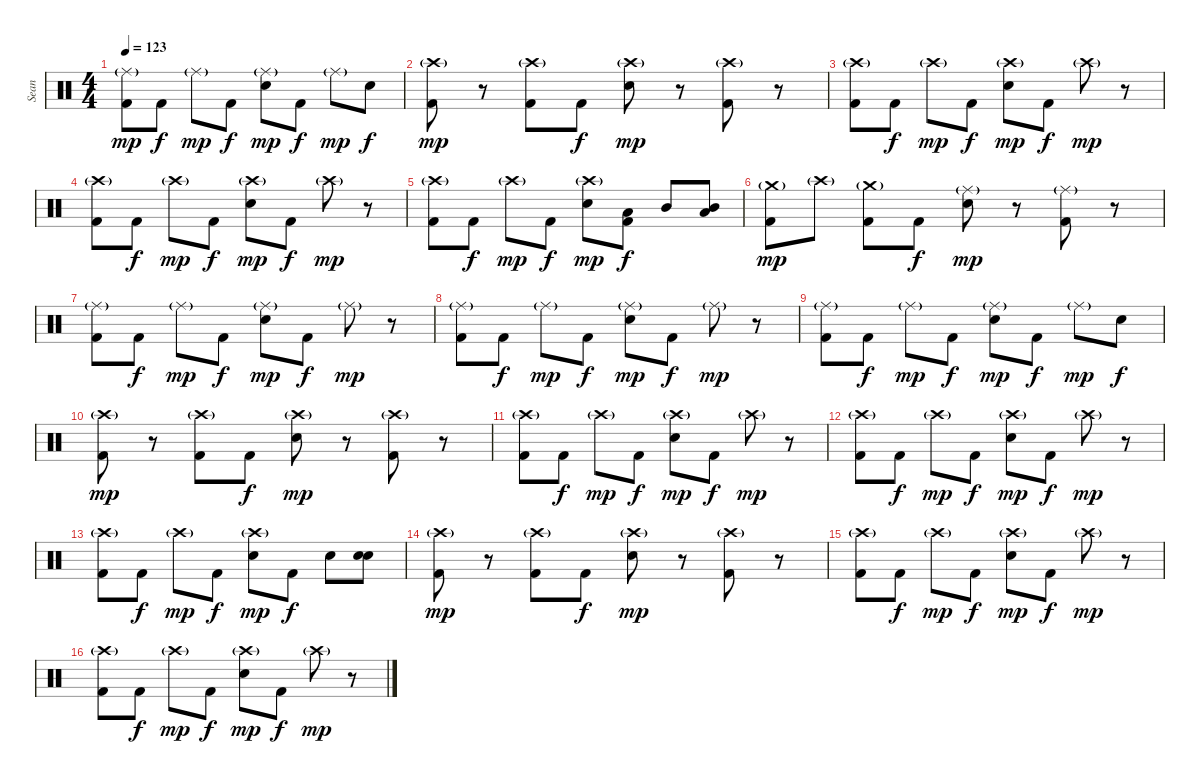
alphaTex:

\track ("Sean" "Sean") {instrument percussion}
\staff {score}
\articulation defaults
\ts (4 4)
\tempo 123
\clef neutral
\ks c
("Ride (middle)"{g} "Kick (hit) 2").8{dy mp} "Kick (hit) 2".8{dy f} "Ride (middle)"{g}.8{dy mp} "Kick (hit) 2".8{dy f} ("Ride (middle)"{g} "Electric Snare (hit)").8{dy mp} "Kick (hit) 2".8{dy f} "Ride (middle)"{g}.8{dy mp} "Electric Snare (hit)".8{dy f} |
("Crash high (hit)"{g} "Kick (hit) 2").8{dy mp} r.8 ("Crash high (hit)"{g} "Kick (hit) 2").8 "Kick (hit) 2".8{dy f} ("Crash high (hit)"{g} "Electric Snare (hit)").8{dy mp} r.8 ("Crash high (hit)"{g} "Kick (hit) 2").8 r.8 |
("Crash high (hit)"{g} "Kick (hit) 2").8 "Kick (hit) 2".8{dy f} "Crash high (hit)"{g}.8{dy mp} "Kick (hit) 2".8{dy f} ("Crash high (hit)"{g} "Electric Snare (hit)").8{dy mp} "Kick (hit) 2".8{dy f} "Crash high (hit)"{g}.8{dy mp} r.8 |
("Crash high (hit)"{g} "Kick (hit) 2").8 "Kick (hit) 2".8{dy f} "Crash high (hit)"{g}.8{dy mp} "Kick (hit) 2".8{dy f} ("Crash high (hit)"{g} "Electric Snare (hit)").8{dy mp} "Kick (hit) 2".8{dy f} "Crash high (hit)"{g}.8{dy mp} r.8 |
("Crash high (hit)"{g} "Kick (hit) 2").8 "Kick (hit) 2".8{dy f} "Crash high (hit)"{g}.8{dy mp} "Kick (hit) 2".8{dy f} ("Crash high (hit)"{g} "Electric Snare (hit)").8{dy mp} ("Low Tom (hit)" "Kick (hit) 2").8{dy f} "Mid Tom (hit)".8 ("Mid Tom (hit)" "Low Tom (hit)").8{bd 480} |
("Crash medium (hit)"{g} "Kick (hit) 2").8{dy mp} "Crash high (hit)"{g}.8 ("Crash medium (hit)"{g} "Kick (hit) 2").8 "Kick (hit) 2".8{dy f} ("Ride (middle)"{g} "Electric Snare (hit)").8{dy mp} r.8 ("Ride (middle)"{g} "Kick (hit) 2").8 r.8 |
("Ride (middle)"{g} "Kick (hit) 2").8 "Kick (hit) 2".8{dy f} "Ride (middle)"{g}.8{dy mp} "Kick (hit) 2".8{dy f} ("Ride (middle)"{g} "Electric Snare (hit)").8{dy mp} "Kick (hit) 2".8{dy f} "Ride (middle)"{g}.8{dy mp} r.8 |
("Ride (middle)"{g} "Kick (hit) 2").8 "Kick (hit) 2".8{dy f} "Ride (middle)"{g}.8{dy mp} "Kick (hit) 2".8{dy f} ("Ride (middle)"{g} "Electric Snare (hit)").8{dy mp} "Kick (hit) 2".8{dy f} "Ride (middle)"{g}.8{dy mp} r.8 |
("Ride (middle)"{g} "Kick (hit) 2").8 "Kick (hit) 2".8{dy f} "Ride (middle)"{g}.8{dy mp} "Kick (hit) 2".8{dy f} ("Ride (middle)"{g} "Electric Snare (hit)").8{dy mp} "Kick (hit) 2".8{dy f} "Ride (middle)"{g}.8{dy mp} "Electric Snare (hit)".8{dy f} |
("Crash high (hit)"{g} "Kick (hit) 2").8{dy mp} r.8 ("Crash high (hit)"{g} "Kick (hit) 2").8 "Kick (hit) 2".8{dy f} ("Crash high (hit)"{g} "Electric Snare (hit)").8{dy mp} r.8 ("Crash high (hit)"{g} "Kick (hit) 2").8 r.8 |
("Crash high (hit)"{g} "Kick (hit) 2").8 "Kick (hit) 2".8{dy f} "Crash high (hit)"{g}.8{dy mp} "Kick (hit) 2".8{dy f} ("Crash high (hit)"{g} "Electric Snare (hit)").8{dy mp} "Kick (hit) 2".8{dy f} "Crash high (hit)"{g}.8{dy mp} r.8 |
("Crash high (hit)"{g} "Kick (hit) 2").8 "Kick (hit) 2".8{dy f} "Crash high (hit)"{g}.8{dy mp} "Kick (hit) 2".8{dy f} ("Crash high (hit)"{g} "Electric Snare (hit)").8{dy mp} "Kick (hit) 2".8{dy f} "Crash high (hit)"{g}.8{dy mp} r.8 |
("Crash high (hit)"{g} "Kick (hit) 2").8 "Kick (hit) 2".8{dy f} "Crash high (hit)"{g}.8{dy mp} "Kick (hit) 2".8{dy f} ("Crash high (hit)"{g} "Electric Snare (hit)").8{dy mp} "Kick (hit) 2".8{dy f} "Electric Snare (hit)".8 ("Electric Snare (hit)" "Electric Snare (hit)").8{bd 480} |
("Crash high (hit)"{g} "Kick (hit) 2").8{dy mp} r.8 ("Crash high (hit)"{g} "Kick (hit) 2").8 "Kick (hit) 2".8{dy f} ("Crash high (hit)"{g} "Electric Snare (hit)").8{dy mp} r.8 ("Crash high (hit)"{g} "Kick (hit) 2").8 r.8 |
("Crash high (hit)"{g} "Kick (hit) 2").8 "Kick (hit) 2".8{dy f} "Crash high (hit)"{g}.8{dy mp} "Kick (hit) 2".8{dy f} ("Crash high (hit)"{g} "Electric Snare (hit)").8{dy mp} "Kick (hit) 2".8{dy f} "Crash high (hit)"{g}.8{dy mp} r.8 |
("Crash high (hit)"{g} "Kick (hit) 2").8 "Kick (hit) 2".8{dy f} "Crash high (hit)"{g}.8{dy mp} "Kick (hit) 2".8{dy f} ("Crash high (hit)"{g} "Electric Snare (hit)").8{dy mp} "Kick (hit) 2".8{dy f} "Crash high (hit)"{g}.8{dy mp} r.8
